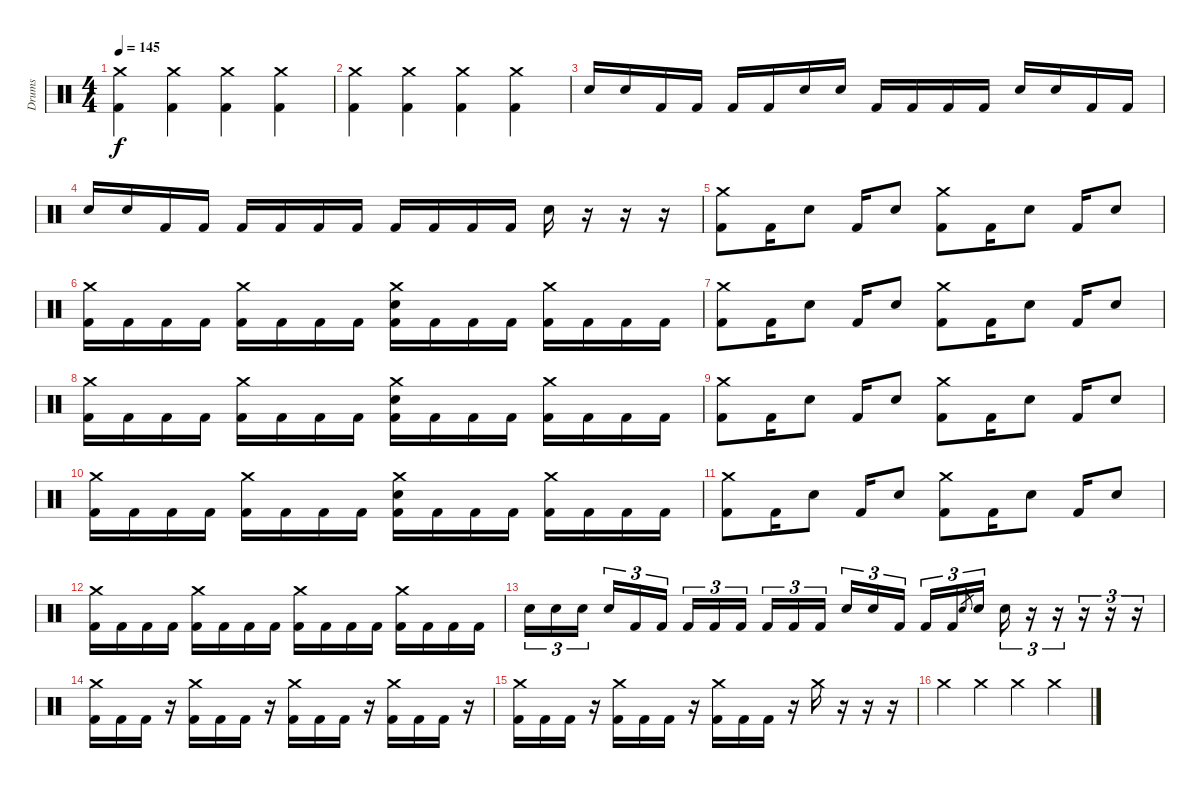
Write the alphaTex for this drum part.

\track ("Drums" "Drums") {instrument percussion}
\staff {score}
\articulation defaults
\ts (4 4)
\tempo 145
\clef neutral
\ks c
("Crash medium (hit)" "Kick (hit) 2").4{dy f} ("Crash medium (hit)" "Kick (hit) 2").4 ("Crash medium (hit)" "Kick (hit) 2").4 ("Crash medium (hit)" "Kick (hit) 2").4 |
("Crash medium (hit)" "Kick (hit) 2").4 ("Crash medium (hit)" "Kick (hit) 2").4 ("Crash medium (hit)" "Kick (hit) 2").4 ("Crash medium (hit)" "Kick (hit) 2").4 |
"Snare (hit) 2".16 "Snare (hit) 2".16 "Kick (hit) 2".16 "Kick (hit) 2".16 "Kick (hit) 2".16 "Kick (hit) 2".16 "Snare (hit) 2".16 "Snare (hit) 2".16 "Kick (hit) 2".16 "Kick (hit) 2".16 "Kick (hit) 2".16 "Kick (hit) 2".16 "Snare (hit) 2".16 "Snare (hit) 2".16 "Kick (hit) 2".16 "Kick (hit) 2".16 |
"Snare (hit) 2".16 "Snare (hit) 2".16 "Kick (hit) 2".16 "Kick (hit) 2".16 "Kick (hit) 2".16 "Kick (hit) 2".16 "Kick (hit) 2".16 "Kick (hit) 2".16 "Kick (hit) 2".16 "Kick (hit) 2".16 "Kick (hit) 2".16 "Kick (hit) 2".16 "Snare (hit) 2".16 r.16 r.16 r.16 |
("Crash medium (hit)" "Kick (hit) 2").8 "Kick (hit) 2".16 "Electric Snare (hit)".8 "Kick (hit) 2".16 "Electric Snare (hit)".8 ("Crash medium (hit)" "Kick (hit) 2").8 "Kick (hit) 2".16 "Electric Snare (hit)".8 "Kick (hit) 2".16 "Electric Snare (hit)".8 |
("Crash medium (hit)" "Kick (hit) 2").16 "Kick (hit) 2".16 "Kick (hit) 2".16 "Kick (hit) 2".16 ("Crash medium (hit)" "Kick (hit) 2").16 "Kick (hit) 2".16 "Kick (hit) 2".16 "Kick (hit) 2".16 ("Crash medium (hit)" "Electric Snare (hit)" "Kick (hit) 2").16 "Kick (hit) 2".16 "Kick (hit) 2".16 "Kick (hit) 2".16 ("Crash medium (hit)" "Kick (hit) 2").16 "Kick (hit) 2".16 "Kick (hit) 2".16 "Kick (hit) 2".16 |
("Crash medium (hit)" "Kick (hit) 2").8 "Kick (hit) 2".16 "Electric Snare (hit)".8 "Kick (hit) 2".16 "Electric Snare (hit)".8 ("Crash medium (hit)" "Kick (hit) 2").8 "Kick (hit) 2".16 "Electric Snare (hit)".8 "Kick (hit) 2".16 "Electric Snare (hit)".8 |
("Crash medium (hit)" "Kick (hit) 2").16 "Kick (hit) 2".16 "Kick (hit) 2".16 "Kick (hit) 2".16 ("Crash medium (hit)" "Kick (hit) 2").16 "Kick (hit) 2".16 "Kick (hit) 2".16 "Kick (hit) 2".16 ("Crash medium (hit)" "Electric Snare (hit)" "Kick (hit) 2").16 "Kick (hit) 2".16 "Kick (hit) 2".16 "Kick (hit) 2".16 ("Crash medium (hit)" "Kick (hit) 2").16 "Kick (hit) 2".16 "Kick (hit) 2".16 "Kick (hit) 2".16 |
("Crash medium (hit)" "Kick (hit) 2").8 "Kick (hit) 2".16 "Electric Snare (hit)".8 "Kick (hit) 2".16 "Electric Snare (hit)".8 ("Crash medium (hit)" "Kick (hit) 2").8 "Kick (hit) 2".16 "Electric Snare (hit)".8 "Kick (hit) 2".16 "Electric Snare (hit)".8 |
("Crash medium (hit)" "Kick (hit) 2").16 "Kick (hit) 2".16 "Kick (hit) 2".16 "Kick (hit) 2".16 ("Crash medium (hit)" "Kick (hit) 2").16 "Kick (hit) 2".16 "Kick (hit) 2".16 "Kick (hit) 2".16 ("Crash medium (hit)" "Electric Snare (hit)" "Kick (hit) 2").16 "Kick (hit) 2".16 "Kick (hit) 2".16 "Kick (hit) 2".16 ("Crash medium (hit)" "Kick (hit) 2").16 "Kick (hit) 2".16 "Kick (hit) 2".16 "Kick (hit) 2".16 |
("Crash medium (hit)" "Kick (hit) 2").8 "Kick (hit) 2".16 "Electric Snare (hit)".8 "Kick (hit) 2".16 "Electric Snare (hit)".8 ("Crash medium (hit)" "Kick (hit) 2").8 "Kick (hit) 2".16 "Electric Snare (hit)".8 "Kick (hit) 2".16 "Electric Snare (hit)".8 |
("Crash medium (hit)" "Kick (hit) 2").16 "Kick (hit) 2".16 "Kick (hit) 2".16 "Kick (hit) 2".16 ("Crash medium (hit)" "Kick (hit) 2").16 "Kick (hit) 2".16 "Kick (hit) 2".16 "Kick (hit) 2".16 ("Crash medium (hit)" "Kick (hit) 2").16 "Kick (hit) 2".16 "Kick (hit) 2".16 "Kick (hit) 2".16 ("Crash medium (hit)" "Kick (hit) 2").16 "Kick (hit) 2".16 "Kick (hit) 2".16 "Kick (hit) 2".16 |
"Snare (hit) 2".16{tu (3 2)} "Snare (hit) 2".16{tu (3 2)} "Snare (hit) 2".16{tu (3 2) beam splitsecondary} "Snare (hit) 2".16{tu (3 2)} "Kick (hit) 2".16{tu (3 2)} "Kick (hit) 2".16{tu (3 2)} "Kick (hit) 2".16{tu (3 2)} "Kick (hit) 2".16{tu (3 2)} "Kick (hit) 2".16{tu (3 2) beam splitsecondary} "Kick (hit) 2".16{tu (3 2)} "Kick (hit) 2".16{tu (3 2)} "Kick (hit) 2".16{tu (3 2)} "Snare (hit) 2".16{tu (3 2)} "Snare (hit) 2".16{tu (3 2)} "Kick (hit) 2".16{tu (3 2) beam splitsecondary} "Kick (hit) 2".16{tu (3 2)} "Kick (hit) 2".16{tu (3 2)} "Snare (hit) 2".8{gr} "Snare (hit) 2".16{tu (3 2)} "Snare (hit) 2".16{tu (3 2)} r.16{tu (3 2)} r.16{tu (3 2)} r.16{tu (3 2)} r.16{tu (3 2)} r.16{tu (3 2)} |
("Crash medium (hit)" "Kick (hit) 2").16 "Kick (hit) 2".16 "Kick (hit) 2".16 r.16 ("Crash medium (hit)" "Kick (hit) 2").16 "Kick (hit) 2".16 "Kick (hit) 2".16 r.16 ("Crash medium (hit)" "Kick (hit) 2").16 "Kick (hit) 2".16 "Kick (hit) 2".16 r.16 ("Crash medium (hit)" "Kick (hit) 2").16 "Kick (hit) 2".16 "Kick (hit) 2".16 r.16 |
("Crash medium (hit)" "Kick (hit) 2").16 "Kick (hit) 2".16 "Kick (hit) 2".16 r.16 ("Crash medium (hit)" "Kick (hit) 2").16 "Kick (hit) 2".16 "Kick (hit) 2".16 r.16 ("Crash medium (hit)" "Kick (hit) 2").16 "Kick (hit) 2".16 "Kick (hit) 2".16 r.16 "Crash medium (hit)".16 r.16 r.16 r.16 |
"Crash medium (hit)".4 "Crash medium (hit)".4 "Crash medium (hit)".4 "Crash medium (hit)".4
